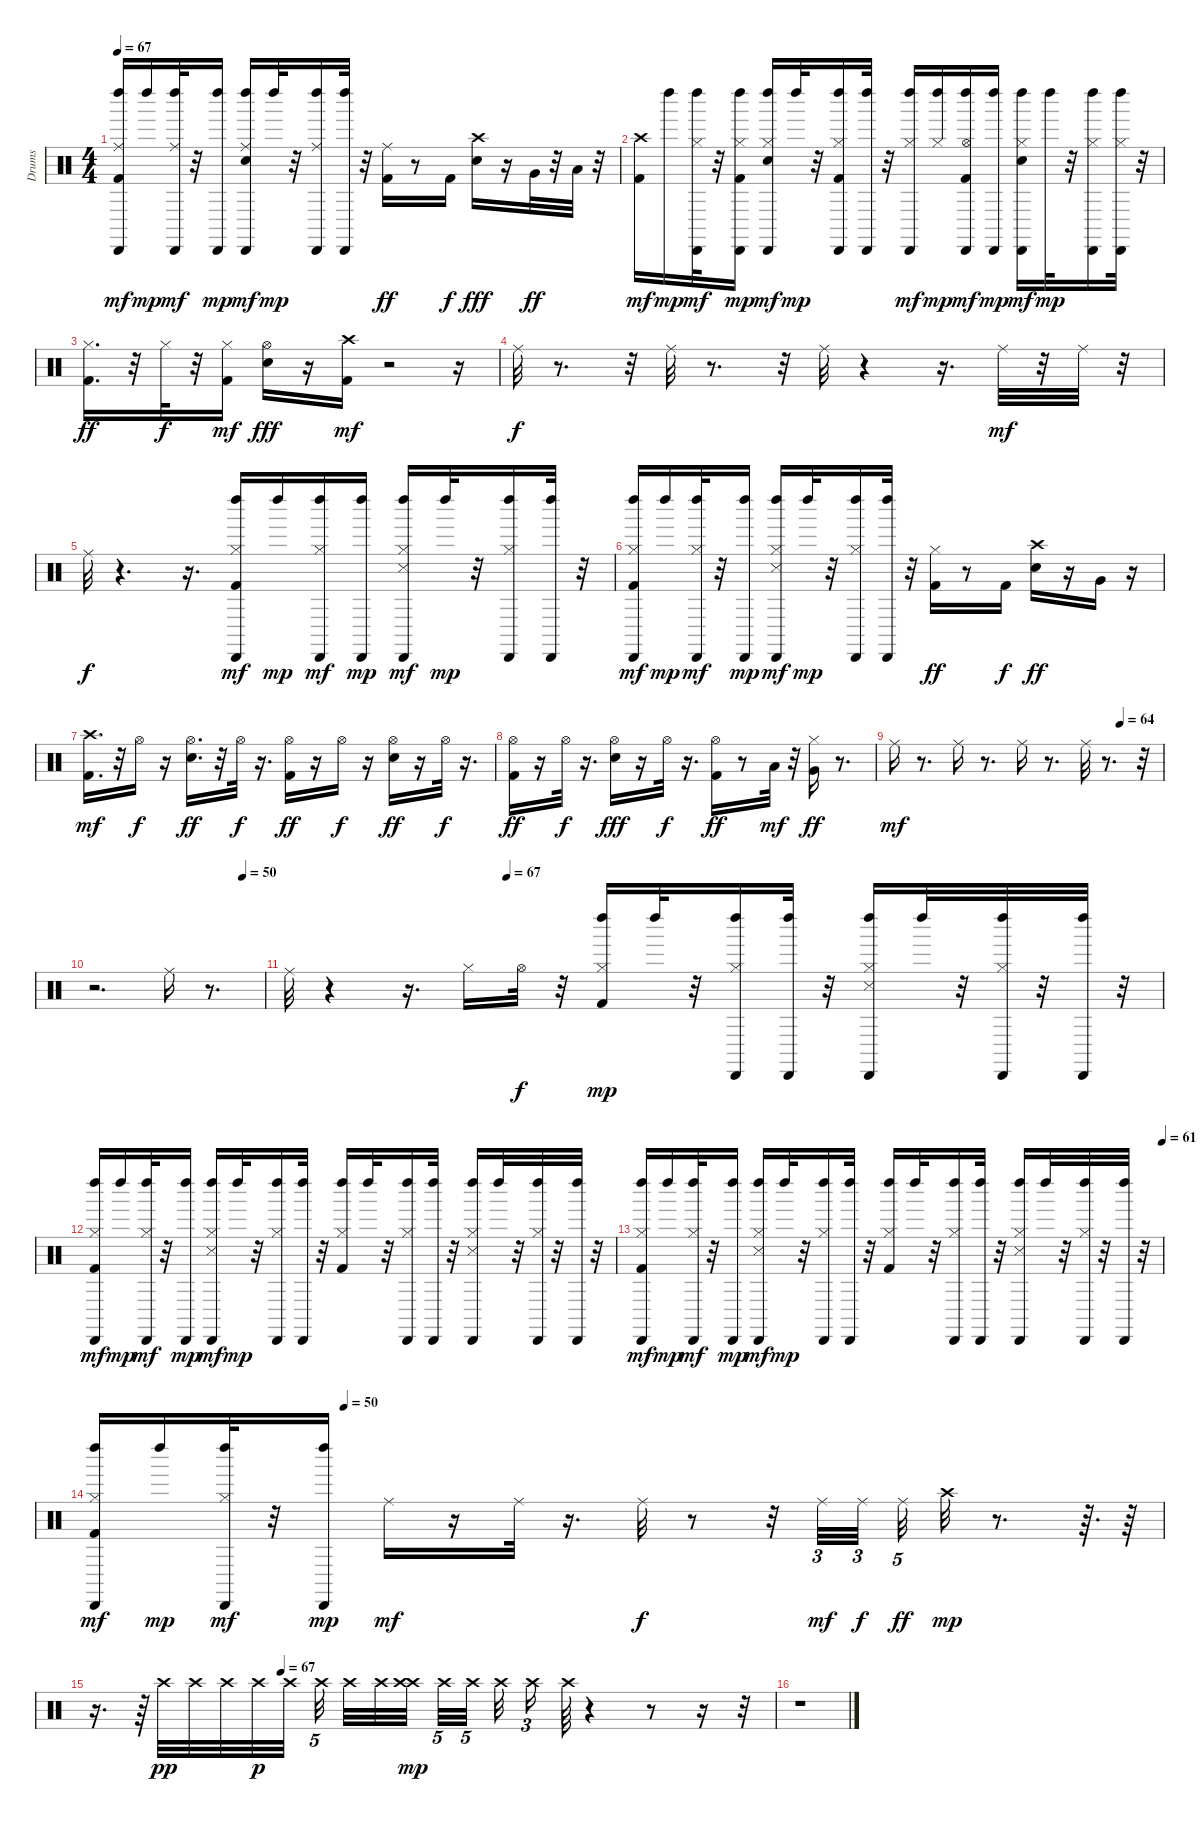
\track ("Drums" "Drums") {instrument percussion}
\staff {score}
\articulation defaults
\ts (4 4)
\tempo 67
\clef neutral
\ks c
("Kick (hit) 2" "Left Maraca (hit)" "Ride (middle)" "Cabasa (hit)").16{dy mf} "Left Maraca (hit)".16{dy mp} ("Ride (middle)" "Left Maraca (hit)" "Cabasa (hit)").32{dy mf} r.32 ("Cabasa (hit)" "Left Maraca (hit)").16{dy mp} ("Ride (middle)" "Left Maraca (hit)" "Electric Snare (hit)" "Cabasa (hit)").16{dy mf} "Left Maraca (hit)".32{dy mp} r.32 ("Ride (middle)" "Cabasa (hit)" "Left Maraca (hit)").16 ("Cabasa (hit)" "Left Maraca (hit)").32 r.32 ("Kick (hit) 2" "Ride (middle)").16{dy ff} r.8 "Kick (hit) 2".16{dy f} ("Crash high (hit)" "Electric Snare (hit)").16{dy fff} r.16 "Very Low Tom (hit)".32{dy ff} r.32 "Low Floor Tom (hit)".32 r.32 |
("Kick (hit) 2" "Crash high (hit)").16{dy mf} "Left Maraca (hit)".16{dy mp} ("Hi-Hat (closed)" "Left Maraca (hit)" "Cabasa (hit)").32{dy mf} r.32 ("Kick (hit) 2" "Hi-Hat (closed)" "Cabasa (hit)" "Left Maraca (hit)").16{dy mp} ("Electric Snare (hit)" "Left Maraca (hit)" "Hi-Hat (closed)" "Cabasa (hit)").16{dy mf} "Left Maraca (hit)".32{dy mp} r.32 ("Kick (hit) 2" "Hi-Hat (closed)" "Cabasa (hit)" "Left Maraca (hit)").16 ("Cabasa (hit)" "Left Maraca (hit)").32 r.32 ("Hi-Hat (closed)" "Left Maraca (hit)" "Cabasa (hit)").16{dy mf} ("Hi-Hat (closed)" "Left Maraca (hit)").16{dy mp} ("Kick (hit) 2" "Left Maraca (hit)" "Hi-Hat (open)" "Cabasa (hit)").16{dy mf} ("Cabasa (hit)" "Left Maraca (hit)").16{dy mp} ("Hi-Hat (closed)" "Left Maraca (hit)" "Electric Snare (hit)" "Cabasa (hit)").16{dy mf} "Left Maraca (hit)".32{dy mp} r.32 ("Hi-Hat (closed)" "Cabasa (hit)" "Left Maraca (hit)").16 ("Hi-Hat (closed)" "Cabasa (hit)" "Left Maraca (hit)").32 r.32 |
("Kick (hit) 2" "Hi-Hat (closed)").16{d dy ff} r.32 "Hi-Hat (closed)".32{dy f} r.32 ("Kick (hit) 2" "Hi-Hat (closed)").16{dy mf} ("Electric Snare (hit)" "Hi-Hat (open)").16{dy fff} r.16 ("Kick (hit) 2" "Crash high (hit)").16{dy mf} r.2 r.16 |
"Ride (middle)".32{dy f} r.8{d} r.32 "Ride (middle)".32 r.8{d} r.32 "Ride (middle)".32 r.4 r.16{d} "Ride (middle)".32{dy mf} r.32 "Ride (middle)".32 r.32 |
"Ride (middle)".32{dy f} r.4{d} r.16{d} ("Hi-Hat (closed)" "Kick (hit) 2" "Left Maraca (hit)" "Cabasa (hit)").16{dy mf} "Left Maraca (hit)".16{dy mp} ("Hi-Hat (closed)" "Left Maraca (hit)" "Cabasa (hit)").16{dy mf} ("Cabasa (hit)" "Left Maraca (hit)").16{dy mp} ("Hi-Hat (closed)" "Left Maraca (hit)" "Snare (side stick) 3" "Cabasa (hit)").16{dy mf} "Left Maraca (hit)".32{dy mp} r.32 ("Hi-Hat (closed)" "Cabasa (hit)" "Left Maraca (hit)").16 ("Cabasa (hit)" "Left Maraca (hit)").32 r.32 |
("Hi-Hat (closed)" "Left Maraca (hit)" "Kick (hit) 2" "Cabasa (hit)").16{dy mf} "Left Maraca (hit)".16{dy mp} ("Hi-Hat (closed)" "Left Maraca (hit)" "Cabasa (hit)").32{dy mf} r.32 ("Cabasa (hit)" "Left Maraca (hit)").16{dy mp} ("Hi-Hat (closed)" "Left Maraca (hit)" "Snare (side stick) 3" "Cabasa (hit)").16{dy mf} "Left Maraca (hit)".32{dy mp} r.32 ("Cabasa (hit)" "Hi-Hat (closed)" "Left Maraca (hit)").16 ("Cabasa (hit)" "Left Maraca (hit)").32 r.32 ("Kick (hit) 2" "Hi-Hat (closed)").16{dy ff} r.8 "Kick (hit) 2".16{dy f} ("Crash high (hit)" "Electric Snare (hit)").16{dy ff} r.16 "Very Low Tom (hit)".16 r.16 |
("Crash high (hit)" "Kick (hit) 2").16{d dy mf} r.32 "Hi-Hat (open)".16{dy f} r.16 ("Hi-Hat (open)" "Electric Snare (hit)").16{d dy ff} r.32 "Hi-Hat (open)".32{dy f} r.16{d} ("Kick (hit) 2" "Hi-Hat (open)").16{dy ff} r.16 "Hi-Hat (open)".16{dy f} r.16 ("Electric Snare (hit)" "Hi-Hat (open)").16{dy ff} r.16 "Hi-Hat (open)".32{dy f} r.16{d} |
("Kick (hit) 2" "Hi-Hat (open)").16{dy ff} r.16 "Hi-Hat (open)".32{dy f} r.16{d} ("Hi-Hat (open)" "Electric Snare (hit)").16{dy fff} r.16 "Hi-Hat (open)".32{dy f} r.16{d} ("Kick (hit) 2" "Hi-Hat (open)").16{dy ff} r.8 "Low Floor Tom (hit)".32{dy mf} r.32 ("Very Low Tom (hit)" "Hi-Hat (closed)").16{dy ff} r.8{d} |
\tempo (64 0.84375)
"Ride (middle)".16{dy mf} r.8{d} "Ride (middle)".16 r.8{d} "Ride (middle)".16 r.8{d} "Ride (middle)".32 r.8{d} r.32 |
\tempo (50 0.875)
r.2{d} "Ride (middle)".16 r.8{d} |
\tempo (67 0.25)
"Ride (middle)".32 r.4 r.16{d} "Hi-Hat (closed)".16 "Hi-Hat (open)".32{dy f} r.32 ("Kick (hit) 2" "Hi-Hat (closed)" "Left Maraca (hit)").16{dy mp} "Left Maraca (hit)".32 r.32 ("Hi-Hat (closed)" "Cabasa (hit)" "Left Maraca (hit)").16 ("Cabasa (hit)" "Left Maraca (hit)").32 r.32 ("Snare (side stick) 3" "Hi-Hat (closed)" "Cabasa (hit)" "Left Maraca (hit)").16 "Left Maraca (hit)".32 r.32 ("Cabasa (hit)" "Left Maraca (hit)" "Hi-Hat (closed)").32 r.32 ("Cabasa (hit)" "Left Maraca (hit)").32 r.32 |
("Hi-Hat (closed)" "Left Maraca (hit)" "Kick (hit) 2" "Cabasa (hit)").16{dy mf} "Left Maraca (hit)".16{dy mp} ("Left Maraca (hit)" "Hi-Hat (closed)" "Cabasa (hit)").32{dy mf} r.32 ("Cabasa (hit)" "Left Maraca (hit)").16{dy mp} ("Left Maraca (hit)" "Snare (side stick) 3" "Hi-Hat (closed)" "Cabasa (hit)").16{dy mf} "Left Maraca (hit)".32{dy mp} r.32 ("Hi-Hat (closed)" "Cabasa (hit)" "Left Maraca (hit)").16 ("Cabasa (hit)" "Left Maraca (hit)").32 r.32 ("Kick (hit) 2" "Hi-Hat (closed)" "Left Maraca (hit)").16 "Left Maraca (hit)".32 r.32 ("Hi-Hat (closed)" "Cabasa (hit)" "Left Maraca (hit)").16 ("Cabasa (hit)" "Left Maraca (hit)").32 r.32 ("Snare (side stick) 3" "Hi-Hat (closed)" "Cabasa (hit)" "Left Maraca (hit)").16 "Left Maraca (hit)".32 r.32 ("Cabasa (hit)" "Left Maraca (hit)" "Hi-Hat (closed)").32 r.32 ("Cabasa (hit)" "Left Maraca (hit)").32 r.32 |
\tempo (61 1.0010416666666666)
("Hi-Hat (closed)" "Left Maraca (hit)" "Kick (hit) 2" "Cabasa (hit)").16{dy mf} "Left Maraca (hit)".16{dy mp} ("Left Maraca (hit)" "Hi-Hat (closed)" "Cabasa (hit)").32{dy mf} r.32 ("Cabasa (hit)" "Left Maraca (hit)").16{dy mp} ("Left Maraca (hit)" "Snare (side stick) 3" "Hi-Hat (closed)" "Cabasa (hit)").16{dy mf} "Left Maraca (hit)".32{dy mp} r.32 ("Hi-Hat (closed)" "Cabasa (hit)" "Left Maraca (hit)").16 ("Cabasa (hit)" "Left Maraca (hit)").32 r.32 ("Kick (hit) 2" "Hi-Hat (closed)" "Left Maraca (hit)").16 "Left Maraca (hit)".32 r.32 ("Hi-Hat (closed)" "Cabasa (hit)" "Left Maraca (hit)").16 ("Cabasa (hit)" "Left Maraca (hit)").32 r.32 ("Snare (side stick) 3" "Hi-Hat (closed)" "Cabasa (hit)" "Left Maraca (hit)").16 "Left Maraca (hit)".32 r.32 ("Cabasa (hit)" "Left Maraca (hit)" "Hi-Hat (closed)").32 r.32 ("Cabasa (hit)" "Left Maraca (hit)").32 r.32 |
\tempo (50 0.234375)
("Hi-Hat (closed)" "Left Maraca (hit)" "Kick (hit) 2" "Cabasa (hit)").16{dy mf} "Left Maraca (hit)".16{dy mp} ("Left Maraca (hit)" "Hi-Hat (closed)" "Cabasa (hit)").32{dy mf} r.32 ("Cabasa (hit)" "Left Maraca (hit)").16{dy mp} "Ride (middle)".16{dy mf} r.16 "Ride (middle)".32 r.16{d} "Ride (middle)".32{dy f} r.8 r.32 "Ride (middle)".32{tu (3 2) dy mf} "Ride (middle)".32{tu (3 2) dy f} "Ride (middle)".32{tu (5 4) dy ff} "Crash high (hit)".32{dy mp} r.8{d} r.64{d} r.64 |
\tempo (67 0.275)
r.16{d} r.64 "Crash high (hit)".32{dy pp} "Crash high (hit)".32 "Crash high (hit)".32 "Crash high (hit)".32{dy p} "Crash high (hit)".32 "Crash high (hit)".32{tu (5 4)} "Crash high (hit)".32 "Crash high (hit)".32 ("Crash high (hit)" "Crash high (hit)").32{dy mp} "Crash high (hit)".32{tu (5 4)} "Crash high (hit)".32{tu (5 4)} "Crash high (hit)".32 "Crash high (hit)".16{tu (3 2)} "Crash high (hit)".64 r.4 r.8 r.16 r.32 |
r.1
